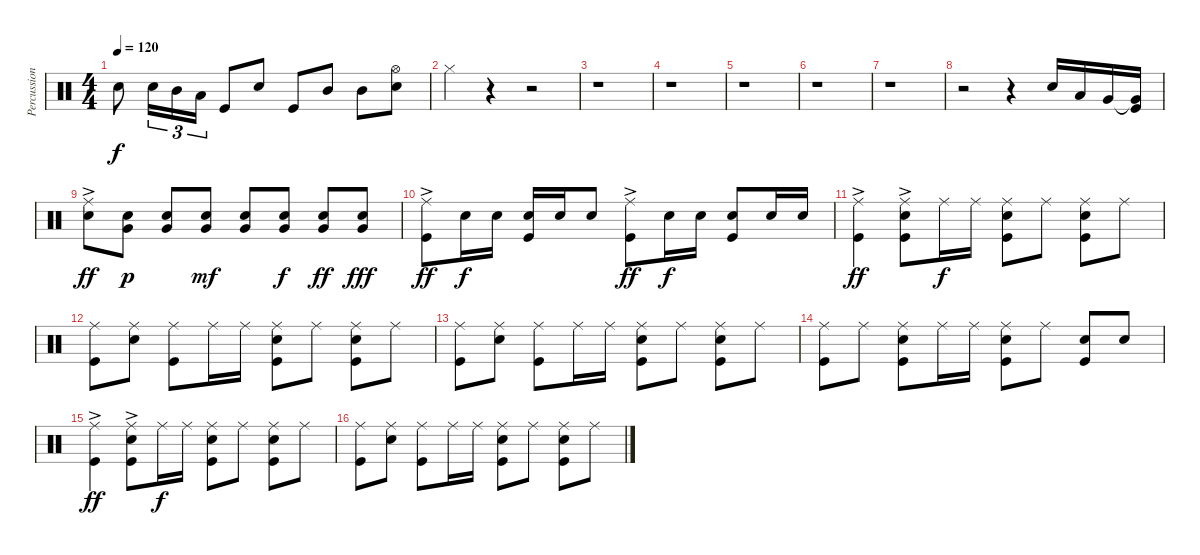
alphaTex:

\track ("Percussion" "Percussion") {instrument percussion}
\staff {score}
\articulation defaults
\ts (4 4)
\tempo 120
\clef neutral
\ks c "Snare (hit) 2".8{dy f} "Snare (hit) 2".16{tu (3 2)} "Mid Tom (hit)".16{tu (3 2)} "Low Tom (hit)".16{tu (3 2)} "Kick (hit)".8 "Snare (hit) 2".8 "Kick (hit)".8 "Mid Tom (hit)".8 "Mid Tom (hit)".8
("Hi-Hat (open)" "Snare (hit) 2").8 |
"Hi-Hat (closed)".4 r.4 r.2 |
r.1 |
r.1 |
r.1 |
r.1 |
r.1 |
r.2 r.4 "Snare (hit) 2".16 "Low Tom (hit)".16 "Very Low Tom (hit)".16 ("Very Low Tom (hit)"{t} "Kick (hit)").16 |
("Ride (middle)"{ac} "Snare (hit) 2").8{dy ff} ("Snare (hit) 2" "Very Low Tom (hit)").8{dy p} ("Snare (hit) 2" "Very Low Tom (hit)").8 ("Snare (hit) 2" "Very Low Tom (hit)").8{dy mf} ("Snare (hit) 2" "Very Low Tom (hit)").8 ("Snare (hit) 2" "Very Low Tom (hit)").8{dy f} ("Snare (hit) 2" "Very Low Tom (hit)").8{dy ff} ("Snare (hit) 2" "Very Low Tom (hit)").8{dy fff} |
("Ride (middle)"{ac} "Kick (hit)").8{dy ff} "Snare (hit) 2".16{dy f} "Snare (hit) 2".16 ("Snare (hit) 2" "Kick (hit)").16 "Snare (hit) 2".16 "Snare (hit) 2".8 ("Ride (middle)"{ac} "Kick (hit)").8{dy ff} "Snare (hit) 2".16{dy f} "Snare (hit) 2".16 ("Snare (hit) 2" "Kick (hit)").8 "Snare (hit) 2".16 "Snare (hit) 2".16 |
("Ride (middle)"{ac} "Kick (hit)").4{dy ff} ("Ride (middle)"{ac} "Snare (hit) 2" "Kick (hit)").8 "Ride (middle)".16{dy f} "Ride (middle)".16 ("Ride (middle)" "Snare (hit) 2" "Kick (hit)").8 "Ride (middle)".8 ("Ride (middle)" "Snare (hit) 2" "Kick (hit)").8 "Ride (middle)".8 |
("Ride (middle)" "Kick (hit)").8 ("Ride (middle)" "Snare (hit) 2").8 ("Ride (middle)" "Kick (hit)").8 "Ride (middle)".16 "Ride (middle)".16 ("Ride (middle)" "Snare (hit) 2" "Kick (hit)").8 "Ride (middle)".8 ("Ride (middle)" "Snare (hit) 2" "Kick (hit)").8 "Ride (middle)".8 |
("Ride (middle)" "Kick (hit)").8 ("Ride (middle)" "Snare (hit) 2").8 ("Ride (middle)" "Kick (hit)").8 "Ride (middle)".16 "Ride (middle)".16 ("Ride (middle)" "Snare (hit) 2" "Kick (hit)").8 "Ride (middle)".8 ("Ride (middle)" "Snare (hit) 2" "Kick (hit)").8 "Ride (middle)".8 |
("Ride (middle)" "Kick (hit)").8 "Ride (middle)".8 ("Ride (middle)" "Snare (hit) 2" "Kick (hit)").8 "Ride (middle)".16 "Ride (middle)".16 ("Ride (middle)" "Snare (hit) 2" "Kick (hit)").8 "Ride (middle)".8 ("Snare (hit) 2" "Kick (hit)").8 "Snare (hit) 2".8 |
("Ride (middle)"{ac} "Kick (hit)").4{dy ff} ("Ride (middle)"{ac} "Snare (hit) 2" "Kick (hit)").8 "Ride (middle)".16{dy f} "Ride (middle)".16 ("Ride (middle)" "Snare (hit) 2" "Kick (hit)").8 "Ride (middle)".8 ("Ride (middle)" "Snare (hit) 2" "Kick (hit)").8 "Ride (middle)".8 |
("Ride (middle)" "Kick (hit)").8 ("Ride (middle)" "Snare (hit) 2").8 ("Ride (middle)" "Kick (hit)").8 "Ride (middle)".16 "Ride (middle)".16 ("Ride (middle)" "Snare (hit) 2" "Kick (hit)").8 "Ride (middle)".8 ("Ride (middle)" "Snare (hit) 2" "Kick (hit)").8 "Ride (middle)".8
